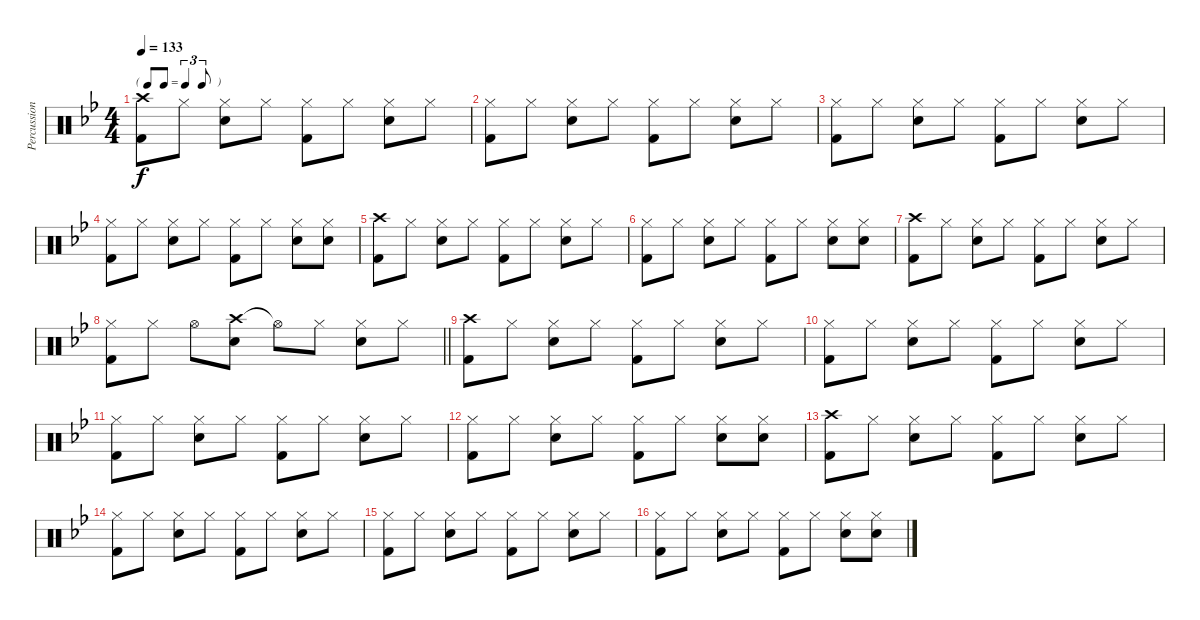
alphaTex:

\track ("Percussion" "Percussion") {instrument percussion}
\staff {score}
\articulation defaults
\ts (4 4)
\tf triplet8th
\tempo 133
\clef neutral
\ks bb
("Crash high (hit)" "Kick (hit) 2").8{dy f} "Hi-Hat (closed)".8 ("Hi-Hat (closed)" "Snare (hit) 2").8 "Hi-Hat (closed)".8 ("Hi-Hat (closed)" "Kick (hit) 2").8 "Hi-Hat (closed)".8 ("Hi-Hat (closed)" "Snare (hit) 2").8 "Hi-Hat (closed)".8 |
("Hi-Hat (closed)" "Kick (hit) 2").8 "Hi-Hat (closed)".8 ("Hi-Hat (closed)" "Snare (hit) 2").8 "Hi-Hat (closed)".8 ("Hi-Hat (closed)" "Kick (hit) 2").8 "Hi-Hat (closed)".8 ("Hi-Hat (closed)" "Snare (hit) 2").8 "Hi-Hat (closed)".8 |
("Hi-Hat (closed)" "Kick (hit) 2").8 "Hi-Hat (closed)".8 ("Hi-Hat (closed)" "Snare (hit) 2").8 "Hi-Hat (closed)".8 ("Hi-Hat (closed)" "Kick (hit) 2").8 "Hi-Hat (closed)".8 ("Hi-Hat (closed)" "Snare (hit) 2").8 "Hi-Hat (closed)".8 |
("Hi-Hat (closed)" "Kick (hit) 2").8 "Hi-Hat (closed)".8 ("Hi-Hat (closed)" "Snare (hit) 2").8 "Hi-Hat (closed)".8 ("Hi-Hat (closed)" "Kick (hit) 2").8 "Hi-Hat (closed)".8 ("Hi-Hat (closed)" "Snare (hit) 2").8 ("Hi-Hat (closed)" "Snare (hit) 2").8 |
("Crash high (hit)" "Kick (hit) 2").8 "Hi-Hat (closed)".8 ("Hi-Hat (closed)" "Snare (hit) 2").8 "Hi-Hat (closed)".8 ("Hi-Hat (closed)" "Kick (hit) 2").8 "Hi-Hat (closed)".8 ("Hi-Hat (closed)" "Snare (hit) 2").8 "Hi-Hat (closed)".8 |
("Hi-Hat (closed)" "Kick (hit) 2").8 "Hi-Hat (closed)".8 ("Hi-Hat (closed)" "Snare (hit) 2").8 "Hi-Hat (closed)".8 ("Hi-Hat (closed)" "Kick (hit) 2").8 "Hi-Hat (closed)".8 ("Hi-Hat (closed)" "Snare (hit) 2").8 ("Hi-Hat (closed)" "Snare (hit) 2").8 |
("Crash high (hit)" "Kick (hit) 2").8 "Hi-Hat (closed)".8 ("Hi-Hat (closed)" "Snare (hit) 2").8 "Hi-Hat (closed)".8 ("Hi-Hat (closed)" "Kick (hit) 2").8 "Hi-Hat (closed)".8 ("Hi-Hat (closed)" "Snare (hit) 2").8 "Hi-Hat (closed)".8 |
\barLineRight lightlight
("Hi-Hat (closed)" "Kick (hit) 2").8 "Hi-Hat (closed)".8 "Hi-Hat (open)".8 ("Crash high (hit)" "Snare (hit) 2").8 "Hi-Hat (open)"{t}.8 "Hi-Hat (closed)".8 ("Hi-Hat (closed)" "Snare (hit) 2").8 "Hi-Hat (closed)".8 |
("Crash high (hit)" "Kick (hit) 2").8 "Hi-Hat (closed)".8 ("Hi-Hat (closed)" "Snare (hit) 2").8 "Hi-Hat (closed)".8 ("Hi-Hat (closed)" "Kick (hit) 2").8 "Hi-Hat (closed)".8 ("Hi-Hat (closed)" "Snare (hit) 2").8 "Hi-Hat (closed)".8 |
("Hi-Hat (closed)" "Kick (hit) 2").8 "Hi-Hat (closed)".8 ("Hi-Hat (closed)" "Snare (hit) 2").8 "Hi-Hat (closed)".8 ("Hi-Hat (closed)" "Kick (hit) 2").8 "Hi-Hat (closed)".8 ("Hi-Hat (closed)" "Snare (hit) 2").8 "Hi-Hat (closed)".8 |
("Hi-Hat (closed)" "Kick (hit) 2").8 "Hi-Hat (closed)".8 ("Hi-Hat (closed)" "Snare (hit) 2").8 "Hi-Hat (closed)".8 ("Hi-Hat (closed)" "Kick (hit) 2").8 "Hi-Hat (closed)".8 ("Hi-Hat (closed)" "Snare (hit) 2").8 "Hi-Hat (closed)".8 |
("Hi-Hat (closed)" "Kick (hit) 2").8 "Hi-Hat (closed)".8 ("Hi-Hat (closed)" "Snare (hit) 2").8 "Hi-Hat (closed)".8 ("Hi-Hat (closed)" "Kick (hit) 2").8 "Hi-Hat (closed)".8 ("Hi-Hat (closed)" "Snare (hit) 2").8 ("Hi-Hat (closed)" "Snare (hit) 2").8 |
("Crash high (hit)" "Kick (hit) 2").8 "Hi-Hat (closed)".8 ("Hi-Hat (closed)" "Snare (hit) 2").8 "Hi-Hat (closed)".8 ("Hi-Hat (closed)" "Kick (hit) 2").8 "Hi-Hat (closed)".8 ("Hi-Hat (closed)" "Snare (hit) 2").8 "Hi-Hat (closed)".8 |
("Hi-Hat (closed)" "Kick (hit) 2").8 "Hi-Hat (closed)".8 ("Hi-Hat (closed)" "Snare (hit) 2").8 "Hi-Hat (closed)".8 ("Hi-Hat (closed)" "Kick (hit) 2").8 "Hi-Hat (closed)".8 ("Hi-Hat (closed)" "Snare (hit) 2").8 "Hi-Hat (closed)".8 |
("Hi-Hat (closed)" "Kick (hit) 2").8 "Hi-Hat (closed)".8 ("Hi-Hat (closed)" "Snare (hit) 2").8 "Hi-Hat (closed)".8 ("Hi-Hat (closed)" "Kick (hit) 2").8 "Hi-Hat (closed)".8 ("Hi-Hat (closed)" "Snare (hit) 2").8 "Hi-Hat (closed)".8 |
("Hi-Hat (closed)" "Kick (hit) 2").8 "Hi-Hat (closed)".8 ("Hi-Hat (closed)" "Snare (hit) 2").8 "Hi-Hat (closed)".8 ("Hi-Hat (closed)" "Kick (hit) 2").8 "Hi-Hat (closed)".8 ("Hi-Hat (closed)" "Snare (hit) 2").8 ("Hi-Hat (closed)" "Snare (hit) 2").8
